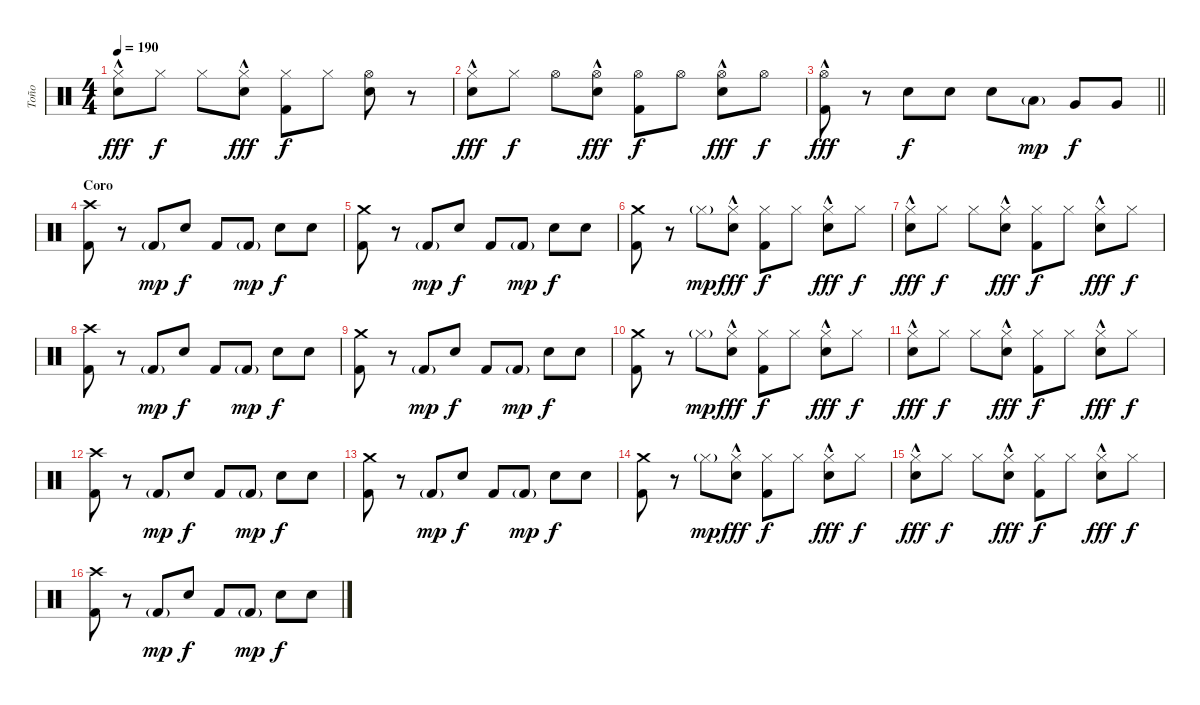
\track ("Toño" "Toño") {instrument percussion}
\staff {score}
\articulation defaults
\ts (4 4)
\tempo 190
\clef neutral
\ks c
("Hi-Hat (closed)"{hac} "Snare (hit) 2").8{dy fff} "Hi-Hat (closed)".8{dy f} "Hi-Hat (closed)".8 ("Hi-Hat (closed)"{hac} "Snare (hit) 2").8{dy fff} ("Hi-Hat (closed)" "Kick (hit) 2").8{dy f} "Hi-Hat (closed)".8 ("Hi-Hat (open)" "Snare (hit) 2").8 r.8 |
("Hi-Hat (closed)"{hac} "Snare (hit) 2").8{dy fff} "Hi-Hat (closed)".8{dy f} "Hi-Hat (open)".8 ("Hi-Hat (open)"{hac} "Snare (hit) 2").8{dy fff} ("Hi-Hat (open)" "Kick (hit) 2").8{dy f} "Hi-Hat (open)".8 ("Hi-Hat (open)"{hac} "Snare (hit) 2").8{dy fff} "Hi-Hat (open)".8{dy f} |
\barLineRight lightlight
("Hi-Hat (open)"{hac} "Kick (hit) 2").8{dy fff} r.8 "Snare (hit) 2".8{dy f} "Snare (hit) 2".8 "Snare (hit) 2".8 "Low Tom (hit)"{g}.8{dy mp} "Very Low Tom (hit)".8{dy f} "Very Low Tom (hit)".8 |
\section ("" "Coro")
("Crash high (hit)" "Kick (hit) 2").8 r.8 "Kick (hit) 2"{g}.8{dy mp} "Snare (hit) 2".8{dy f} "Kick (hit) 2".8 "Kick (hit) 2"{g}.8{dy mp} "Snare (hit) 2".8{dy f} "Snare (hit) 2".8 |
("Crash medium (hit)" "Kick (hit) 2").8 r.8 "Kick (hit) 2"{g}.8{dy mp} "Snare (hit) 2".8{dy f} "Kick (hit) 2".8 "Kick (hit) 2"{g}.8{dy mp} "Snare (hit) 2".8{dy f} "Snare (hit) 2".8 |
("Crash medium (hit)" "Kick (hit) 2").8 r.8 "Hi-Hat (closed)"{g}.8{dy mp} ("Hi-Hat (closed)"{hac} "Snare (hit) 2").8{dy fff} ("Hi-Hat (closed)" "Kick (hit) 2").8{dy f} "Hi-Hat (closed)".8 ("Hi-Hat (closed)"{hac} "Snare (hit) 2").8{dy fff} "Hi-Hat (closed)".8{dy f} |
("Hi-Hat (closed)"{hac} "Snare (hit) 2").8{dy fff} "Hi-Hat (closed)".8{dy f} "Hi-Hat (closed)".8 ("Hi-Hat (closed)"{hac} "Snare (hit) 2").8{dy fff} ("Hi-Hat (closed)" "Kick (hit) 2").8{dy f} "Hi-Hat (closed)".8 ("Hi-Hat (closed)"{hac} "Snare (hit) 2").8{dy fff} "Hi-Hat (closed)".8{dy f} |
("Crash high (hit)" "Kick (hit) 2").8 r.8 "Kick (hit) 2"{g}.8{dy mp} "Snare (hit) 2".8{dy f} "Kick (hit) 2".8 "Kick (hit) 2"{g}.8{dy mp} "Snare (hit) 2".8{dy f} "Snare (hit) 2".8 |
("Crash medium (hit)" "Kick (hit) 2").8 r.8 "Kick (hit) 2"{g}.8{dy mp} "Snare (hit) 2".8{dy f} "Kick (hit) 2".8 "Kick (hit) 2"{g}.8{dy mp} "Snare (hit) 2".8{dy f} "Snare (hit) 2".8 |
("Crash medium (hit)" "Kick (hit) 2").8 r.8 "Hi-Hat (closed)"{g}.8{dy mp} ("Hi-Hat (closed)"{hac} "Snare (hit) 2").8{dy fff} ("Hi-Hat (closed)" "Kick (hit) 2").8{dy f} "Hi-Hat (closed)".8 ("Hi-Hat (closed)"{hac} "Snare (hit) 2").8{dy fff} "Hi-Hat (closed)".8{dy f} |
("Hi-Hat (closed)"{hac} "Snare (hit) 2").8{dy fff} "Hi-Hat (closed)".8{dy f} "Hi-Hat (closed)".8 ("Hi-Hat (closed)"{hac} "Snare (hit) 2").8{dy fff} ("Hi-Hat (closed)" "Kick (hit) 2").8{dy f} "Hi-Hat (closed)".8 ("Hi-Hat (closed)"{hac} "Snare (hit) 2").8{dy fff} "Hi-Hat (closed)".8{dy f} |
("Crash high (hit)" "Kick (hit) 2").8 r.8 "Kick (hit) 2"{g}.8{dy mp} "Snare (hit) 2".8{dy f} "Kick (hit) 2".8 "Kick (hit) 2"{g}.8{dy mp} "Snare (hit) 2".8{dy f} "Snare (hit) 2".8 |
("Crash medium (hit)" "Kick (hit) 2").8 r.8 "Kick (hit) 2"{g}.8{dy mp} "Snare (hit) 2".8{dy f} "Kick (hit) 2".8 "Kick (hit) 2"{g}.8{dy mp} "Snare (hit) 2".8{dy f} "Snare (hit) 2".8 |
("Crash medium (hit)" "Kick (hit) 2").8 r.8 "Hi-Hat (closed)"{g}.8{dy mp} ("Hi-Hat (closed)"{hac} "Snare (hit) 2").8{dy fff} ("Hi-Hat (closed)" "Kick (hit) 2").8{dy f} "Hi-Hat (closed)".8 ("Hi-Hat (closed)"{hac} "Snare (hit) 2").8{dy fff} "Hi-Hat (closed)".8{dy f} |
("Hi-Hat (closed)"{hac} "Snare (hit) 2").8{dy fff} "Hi-Hat (closed)".8{dy f} "Hi-Hat (closed)".8 ("Hi-Hat (closed)"{hac} "Snare (hit) 2").8{dy fff} ("Hi-Hat (closed)" "Kick (hit) 2").8{dy f} "Hi-Hat (closed)".8 ("Hi-Hat (closed)"{hac} "Snare (hit) 2").8{dy fff} "Hi-Hat (closed)".8{dy f} |
("Crash high (hit)" "Kick (hit) 2").8 r.8 "Kick (hit) 2"{g}.8{dy mp} "Snare (hit) 2".8{dy f} "Kick (hit) 2".8 "Kick (hit) 2"{g}.8{dy mp} "Snare (hit) 2".8{dy f} "Snare (hit) 2".8
